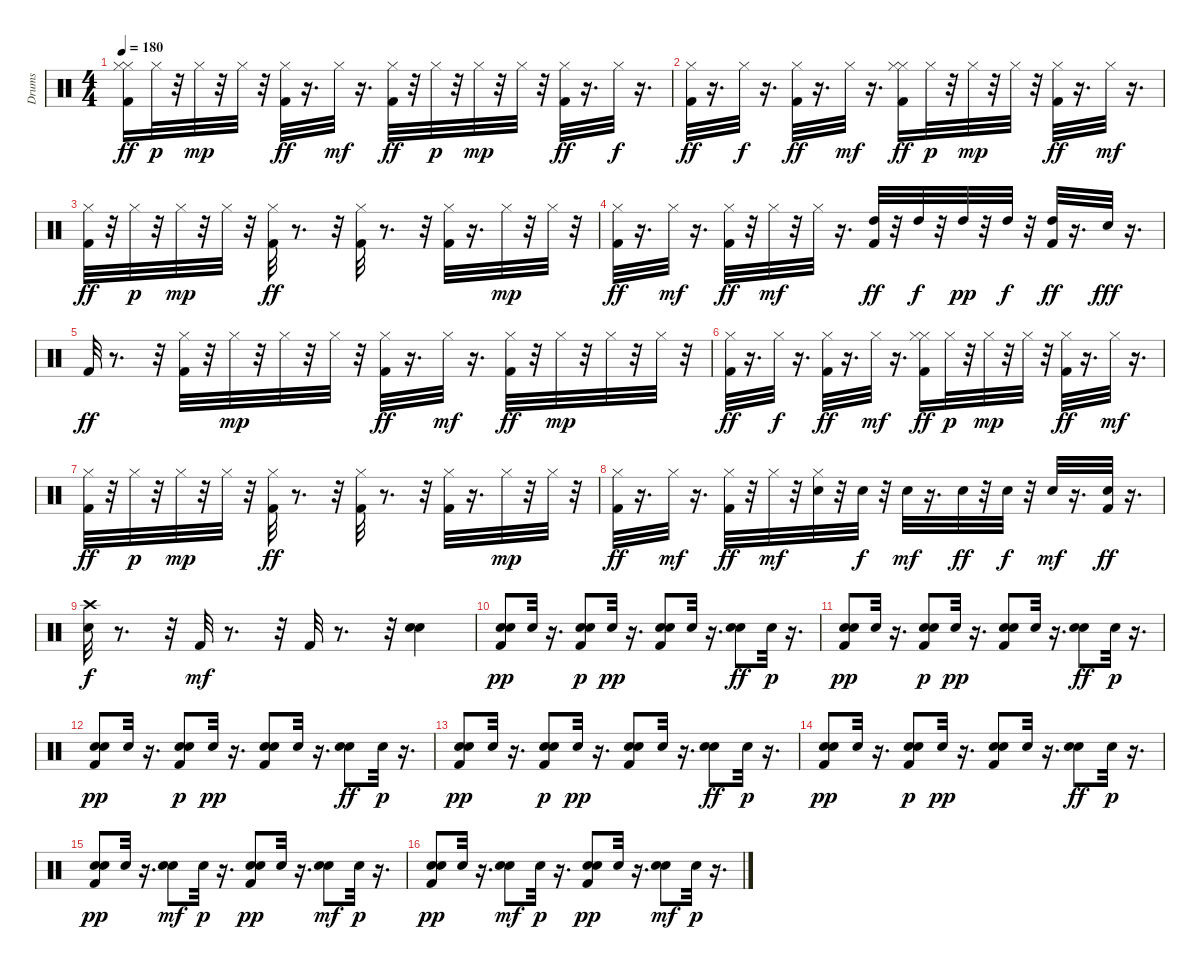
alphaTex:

\track ("Drums" "Drums") {instrument percussion}
\staff {score}
\articulation defaults
\ts (4 4)
\tempo 180
\clef neutral
\ks c
("Hi-Hat (closed)" "Hi-Hat (closed)" "Kick (hit) 2").16{dy ff} "Hi-Hat (closed)".32{dy p} r.32 "Hi-Hat (closed)".32{dy mp} r.32 "Hi-Hat (closed)".32 r.32 ("Hi-Hat (closed)" "Kick (hit) 2").32{dy ff} r.16{d} "Hi-Hat (closed)".32{dy mf} r.16{d} ("Hi-Hat (closed)" "Kick (hit) 2").32{dy ff} r.32 "Hi-Hat (closed)".32{dy p} r.32 "Hi-Hat (closed)".32{dy mp} r.32 "Hi-Hat (closed)".32 r.32 ("Hi-Hat (closed)" "Kick (hit) 2").32{dy ff} r.16{d} "Hi-Hat (closed)".32{dy f} r.16{d} |
("Hi-Hat (closed)" "Kick (hit) 2").32{dy ff} r.16{d} "Hi-Hat (closed)".32{dy f} r.16{d} ("Hi-Hat (closed)" "Kick (hit) 2").32{dy ff} r.16{d} "Hi-Hat (closed)".32{dy mf} r.16{d} ("Hi-Hat (closed)" "Hi-Hat (closed)" "Kick (hit) 2").16{dy ff} "Hi-Hat (closed)".32{dy p} r.32 "Hi-Hat (closed)".32{dy mp} r.32 "Hi-Hat (closed)".32 r.32 ("Hi-Hat (closed)" "Kick (hit) 2").32{dy ff} r.16{d} "Hi-Hat (closed)".32{dy mf} r.16{d} |
("Hi-Hat (closed)" "Kick (hit) 2").32{dy ff} r.32 "Hi-Hat (closed)".32{dy p} r.32 "Hi-Hat (closed)".32{dy mp} r.32 "Hi-Hat (closed)".32 r.32 ("Hi-Hat (closed)" "Kick (hit) 2").32{dy ff} r.8{d} r.32 ("Hi-Hat (closed)" "Kick (hit) 2").32 r.8{d} r.32 ("Hi-Hat (closed)" "Kick (hit) 2").32 r.16{d} "Hi-Hat (closed)".32{dy mp} r.32 "Hi-Hat (closed)".32 r.32 |
("Hi-Hat (closed)" "Kick (hit) 2").32{dy ff} r.16{d} "Hi-Hat (closed)".32{dy mf} r.16{d} ("Hi-Hat (closed)" "Kick (hit) 2").32{dy ff} r.32 "Hi-Hat (closed)".32{dy mf} r.32 "Hi-Hat (closed)".32 r.16{d} ("High Tom (hit)" "Kick (hit) 2").32{dy ff} r.32 "High Tom (hit)".32{dy f} r.32 "High Tom (hit)".32{dy pp} r.32 "High Tom (hit)".32{dy f} r.32 ("High Tom (hit)" "Kick (hit) 2").32{dy ff} r.16{d} "Snare (hit) 2".32{dy fff} r.16{d} |
"Kick (hit) 2".32{dy ff} r.8{d} r.32 ("Hi-Hat (closed)" "Kick (hit) 2").32 r.32 "Hi-Hat (closed)".32{dy mp} r.32 "Hi-Hat (closed)".32 r.32 "Hi-Hat (closed)".32 r.32 ("Hi-Hat (closed)" "Kick (hit) 2").32{dy ff} r.16{d} "Hi-Hat (closed)".32{dy mf} r.16{d} ("Hi-Hat (closed)" "Kick (hit) 2").32{dy ff} r.32 "Hi-Hat (closed)".32{dy mp} r.32 "Hi-Hat (closed)".32 r.32 "Hi-Hat (closed)".32 r.32 |
("Hi-Hat (closed)" "Kick (hit) 2").32{dy ff} r.16{d} "Hi-Hat (closed)".32{dy f} r.16{d} ("Hi-Hat (closed)" "Kick (hit) 2").32{dy ff} r.16{d} "Hi-Hat (closed)".32{dy mf} r.16{d} ("Hi-Hat (closed)" "Hi-Hat (closed)" "Kick (hit) 2").16{dy ff} "Hi-Hat (closed)".32{dy p} r.32 "Hi-Hat (closed)".32{dy mp} r.32 "Hi-Hat (closed)".32 r.32 ("Hi-Hat (closed)" "Kick (hit) 2").32{dy ff} r.16{d} "Hi-Hat (closed)".32{dy mf} r.16{d} |
("Hi-Hat (closed)" "Kick (hit) 2").32{dy ff} r.32 "Hi-Hat (closed)".32{dy p} r.32 "Hi-Hat (closed)".32{dy mp} r.32 "Hi-Hat (closed)".32 r.32 ("Hi-Hat (closed)" "Kick (hit) 2").32{dy ff} r.8{d} r.32 ("Hi-Hat (closed)" "Kick (hit) 2").32 r.8{d} r.32 ("Hi-Hat (closed)" "Kick (hit) 2").32 r.16{d} "Hi-Hat (closed)".32{dy mp} r.32 "Hi-Hat (closed)".32 r.32 |
("Hi-Hat (closed)" "Kick (hit) 2").32{dy ff} r.16{d} "Hi-Hat (closed)".32{dy mf} r.16{d} ("Hi-Hat (closed)" "Kick (hit) 2").32{dy ff} r.32 "Hi-Hat (closed)".32{dy mf} r.32 ("Snare (hit) 2" "Hi-Hat (closed)").32 r.32 "Snare (hit) 2".32{dy f} r.32 "Snare (hit) 2".32{dy mf} r.16{d} "Snare (hit) 2".32{dy ff} r.32 "Snare (hit) 2".32{dy f} r.32 "Snare (hit) 2".32{dy mf} r.16{d} ("Kick (hit) 2" "Snare (hit) 2").32{dy ff} r.16{d} |
("Snare (hit) 2" "Crash high (hit)").32{dy f} r.8{d} r.32 "Kick (hit) 2".32{dy mf} r.8{d} r.32 "Kick (hit) 2".32 r.8{d} r.32 ("Snare (hit) 2" "Snare (hit) 2").4 |
("Snare (hit) 2" "Kick (hit) 2" "Snare (hit) 2").8{dy pp} "Snare (hit) 2".32 r.16{d} ("Snare (hit) 2" "Kick (hit) 2" "Snare (hit) 2").8{dy p} "Snare (hit) 2".32{dy pp} r.16{d} ("Snare (hit) 2" "Kick (hit) 2" "Snare (hit) 2").8 "Snare (hit) 2".32 r.16{d} ("Snare (hit) 2" "Snare (hit) 2").8{dy ff} "Snare (hit) 2".32{dy p} r.16{d} |
("Snare (hit) 2" "Kick (hit) 2" "Snare (hit) 2").8{dy pp} "Snare (hit) 2".32 r.16{d} ("Snare (hit) 2" "Kick (hit) 2" "Snare (hit) 2").8{dy p} "Snare (hit) 2".32{dy pp} r.16{d} ("Snare (hit) 2" "Kick (hit) 2" "Snare (hit) 2").8 "Snare (hit) 2".32 r.16{d} ("Snare (hit) 2" "Snare (hit) 2").8{dy ff} "Snare (hit) 2".32{dy p} r.16{d} |
("Snare (hit) 2" "Kick (hit) 2" "Snare (hit) 2").8{dy pp} "Snare (hit) 2".32 r.16{d} ("Snare (hit) 2" "Kick (hit) 2" "Snare (hit) 2").8{dy p} "Snare (hit) 2".32{dy pp} r.16{d} ("Snare (hit) 2" "Kick (hit) 2" "Snare (hit) 2").8 "Snare (hit) 2".32 r.16{d} ("Snare (hit) 2" "Snare (hit) 2").8{dy ff} "Snare (hit) 2".32{dy p} r.16{d} |
("Snare (hit) 2" "Kick (hit) 2" "Snare (hit) 2").8{dy pp} "Snare (hit) 2".32 r.16{d} ("Snare (hit) 2" "Kick (hit) 2" "Snare (hit) 2").8{dy p} "Snare (hit) 2".32{dy pp} r.16{d} ("Snare (hit) 2" "Kick (hit) 2" "Snare (hit) 2").8 "Snare (hit) 2".32 r.16{d} ("Snare (hit) 2" "Snare (hit) 2").8{dy ff} "Snare (hit) 2".32{dy p} r.16{d} |
("Snare (hit) 2" "Kick (hit) 2" "Snare (hit) 2").8{dy pp} "Snare (hit) 2".32 r.16{d} ("Snare (hit) 2" "Kick (hit) 2" "Snare (hit) 2").8{dy p} "Snare (hit) 2".32{dy pp} r.16{d} ("Snare (hit) 2" "Kick (hit) 2" "Snare (hit) 2").8 "Snare (hit) 2".32 r.16{d} ("Snare (hit) 2" "Snare (hit) 2").8{dy ff} "Snare (hit) 2".32{dy p} r.16{d} |
("Snare (hit) 2" "Snare (hit) 2" "Kick (hit) 2").8{dy pp} "Snare (hit) 2".32 r.16{d} ("Snare (hit) 2" "Snare (hit) 2").8{dy mf} "Snare (hit) 2".32{dy p} r.16{d} ("Snare (hit) 2" "Snare (hit) 2" "Kick (hit) 2").8{dy pp} "Snare (hit) 2".32 r.16{d} ("Snare (hit) 2" "Snare (hit) 2").8{dy mf} "Snare (hit) 2".32{dy p} r.16{d} |
("Snare (hit) 2" "Snare (hit) 2" "Kick (hit) 2").8{dy pp} "Snare (hit) 2".32 r.16{d} ("Snare (hit) 2" "Snare (hit) 2").8{dy mf} "Snare (hit) 2".32{dy p} r.16{d} ("Snare (hit) 2" "Snare (hit) 2" "Kick (hit) 2").8{dy pp} "Snare (hit) 2".32 r.16{d} ("Snare (hit) 2" "Snare (hit) 2").8{dy mf} "Snare (hit) 2".32{dy p} r.16{d}
